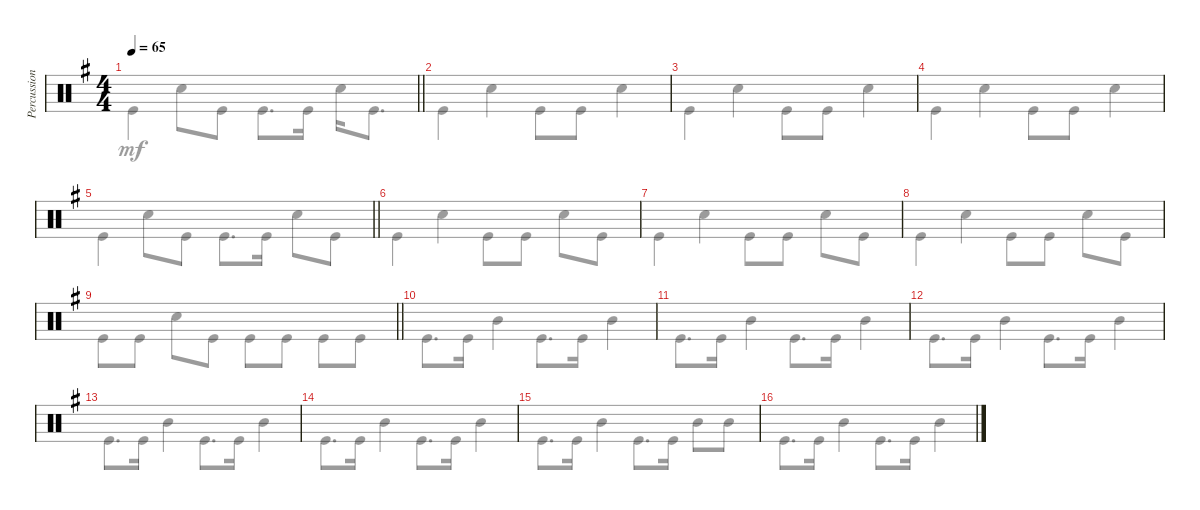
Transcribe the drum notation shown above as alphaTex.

\track ("Percussion" "Percussion") {instrument percussion}
\staff {score}
\articulation defaults
\voice
\ts (4 4)
\tempo 65
\clef neutral
\barLineRight lightlight
\ks eminor
|
|
|
|
\barLineRight lightlight
|
|
|
|
\barLineRight lightlight
|
|
|
|
|
|
|
\voice
\clef neutral
\barLineRight lightlight
\ks eminor "Kick (hit)".4{dy mf} "Snare (hit) 2".8 "Kick (hit)".8 "Kick (hit)".8{d} "Kick (hit)".16 "Snare (hit) 2".16 "Kick (hit)".8{d}
|
"Kick (hit)".4 "Snare (hit) 2".4 "Kick (hit)".8 "Kick (hit)".8 "Snare (hit) 2".4 |
"Kick (hit)".4 "Snare (hit) 2".4 "Kick (hit)".8 "Kick (hit)".8 "Snare (hit) 2".4 |
"Kick (hit)".4 "Snare (hit) 2".4 "Kick (hit)".8 "Kick (hit)".8 "Snare (hit) 2".4 |
\barLineRight lightlight "Kick (hit)".4 "Snare (hit) 2".8 "Kick (hit)".8 "Kick (hit)".8{d} "Kick (hit)".16 "Snare (hit) 2".8 "Kick (hit)".8
|
"Kick (hit)".4 "Snare (hit) 2".4 "Kick (hit)".8 "Kick (hit)".8 "Snare (hit) 2".8 "Kick (hit)".8 |
"Kick (hit)".4 "Snare (hit) 2".4 "Kick (hit)".8 "Kick (hit)".8 "Snare (hit) 2".8 "Kick (hit)".8 |
"Kick (hit)".4 "Snare (hit) 2".4 "Kick (hit)".8 "Kick (hit)".8 "Snare (hit) 2".8 "Kick (hit)".8 |
\barLineRight lightlight "Kick (hit)".8 "Kick (hit)".8 "Snare (hit) 2".8 "Kick (hit)".8 "Kick (hit)".8 "Kick (hit)".8 "Kick (hit)".8 "Kick (hit)".8
|
"Kick (hit)".8{d} "Kick (hit)".16 "Mid Tom (hit)".4 "Kick (hit)".8{d} "Kick (hit)".16 "Mid Tom (hit)".4 |
"Kick (hit)".8{d} "Kick (hit)".16 "Mid Tom (hit)".4 "Kick (hit)".8{d} "Kick (hit)".16 "Mid Tom (hit)".4 |
"Kick (hit)".8{d} "Kick (hit)".16 "Mid Tom (hit)".4 "Kick (hit)".8{d} "Kick (hit)".16 "Mid Tom (hit)".4 |
"Kick (hit)".8{d} "Kick (hit)".16 "Mid Tom (hit)".4 "Kick (hit)".8{d} "Kick (hit)".16 "Mid Tom (hit)".4 |
"Kick (hit)".8{d} "Kick (hit)".16 "Mid Tom (hit)".4 "Kick (hit)".8{d} "Kick (hit)".16 "Mid Tom (hit)".4 |
"Kick (hit)".8{d} "Kick (hit)".16 "Mid Tom (hit)".4 "Kick (hit)".8{d} "Kick (hit)".16 "Mid Tom (hit)".8 "Mid Tom (hit)".8 |
"Kick (hit)".8{d} "Kick (hit)".16 "Mid Tom (hit)".4 "Kick (hit)".8{d} "Kick (hit)".16 "Mid Tom (hit)".4
